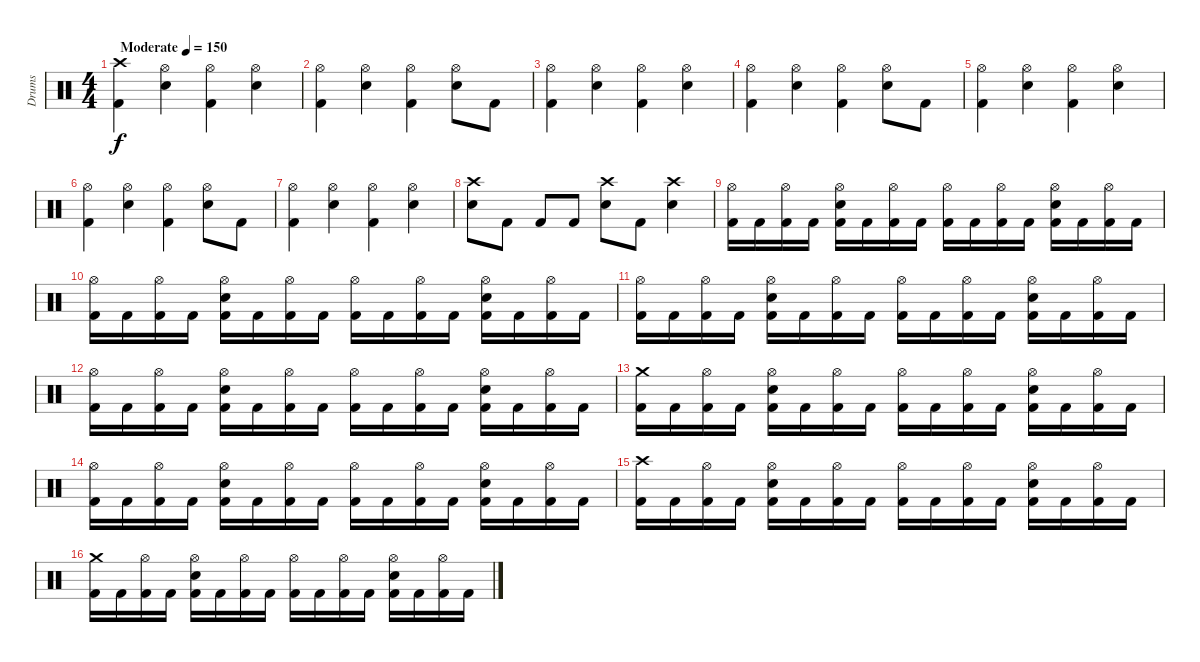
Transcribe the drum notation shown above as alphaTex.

\track ("Drums" "Drums") {instrument percussion}
\staff {score}
\articulation defaults
\ts (4 4)
\tempo (150 "Moderate")
\clef neutral
\ks c
("Crash high (hit)" "Kick (hit) 2").4{dy f} ("Hi-Hat (open)" "Snare (hit) 2").4 ("Hi-Hat (open)" "Kick (hit) 2").4 ("Hi-Hat (open)" "Snare (hit) 2").4 |
("Hi-Hat (open)" "Kick (hit) 2").4 ("Hi-Hat (open)" "Snare (hit) 2").4 ("Hi-Hat (open)" "Kick (hit) 2").4 ("Hi-Hat (open)" "Snare (hit) 2").8 "Kick (hit) 2".8 |
("Hi-Hat (open)" "Kick (hit) 2").4 ("Hi-Hat (open)" "Snare (hit) 2").4 ("Hi-Hat (open)" "Kick (hit) 2").4 ("Hi-Hat (open)" "Snare (hit) 2").4 |
("Hi-Hat (open)" "Kick (hit) 2").4 ("Hi-Hat (open)" "Snare (hit) 2").4 ("Hi-Hat (open)" "Kick (hit) 2").4 ("Hi-Hat (open)" "Snare (hit) 2").8 "Kick (hit) 2".8 |
("Hi-Hat (open)" "Kick (hit) 2").4 ("Hi-Hat (open)" "Snare (hit) 2").4 ("Hi-Hat (open)" "Kick (hit) 2").4 ("Hi-Hat (open)" "Snare (hit) 2").4 |
("Hi-Hat (open)" "Kick (hit) 2").4 ("Hi-Hat (open)" "Snare (hit) 2").4 ("Hi-Hat (open)" "Kick (hit) 2").4 ("Hi-Hat (open)" "Snare (hit) 2").8 "Kick (hit) 2".8 |
("Hi-Hat (open)" "Kick (hit) 2").4 ("Hi-Hat (open)" "Snare (hit) 2").4 ("Hi-Hat (open)" "Kick (hit) 2").4 ("Hi-Hat (open)" "Snare (hit) 2").4 |
("Crash high (hit)" "Snare (hit) 2").8 "Kick (hit) 2".8 "Kick (hit) 2".8 "Kick (hit) 2".8 ("Crash high (hit)" "Snare (hit) 2").8 "Kick (hit) 2".8 ("Crash high (hit)" "Snare (hit) 2").4 |
("Hi-Hat (open)" "Kick (hit) 2").16 "Kick (hit) 2".16 ("Hi-Hat (open)" "Kick (hit) 2").16 "Kick (hit) 2".16 ("Hi-Hat (open)" "Snare (hit) 2" "Kick (hit) 2").16 "Kick (hit) 2".16 ("Hi-Hat (open)" "Kick (hit) 2").16 "Kick (hit) 2".16 ("Hi-Hat (open)" "Kick (hit) 2").16 "Kick (hit) 2".16 ("Hi-Hat (open)" "Kick (hit) 2").16 "Kick (hit) 2".16 ("Hi-Hat (open)" "Snare (hit) 2" "Kick (hit) 2").16 "Kick (hit) 2".16 ("Hi-Hat (open)" "Kick (hit) 2").16 "Kick (hit) 2".16 |
("Hi-Hat (open)" "Kick (hit) 2").16 "Kick (hit) 2".16 ("Hi-Hat (open)" "Kick (hit) 2").16 "Kick (hit) 2".16 ("Hi-Hat (open)" "Snare (hit) 2" "Kick (hit) 2").16 "Kick (hit) 2".16 ("Hi-Hat (open)" "Kick (hit) 2").16 "Kick (hit) 2".16 ("Hi-Hat (open)" "Kick (hit) 2").16 "Kick (hit) 2".16 ("Hi-Hat (open)" "Kick (hit) 2").16 "Kick (hit) 2".16 ("Hi-Hat (open)" "Snare (hit) 2" "Kick (hit) 2").16 "Kick (hit) 2".16 ("Hi-Hat (open)" "Kick (hit) 2").16 "Kick (hit) 2".16 |
("Hi-Hat (open)" "Kick (hit) 2").16 "Kick (hit) 2".16 ("Hi-Hat (open)" "Kick (hit) 2").16 "Kick (hit) 2".16 ("Hi-Hat (open)" "Snare (hit) 2" "Kick (hit) 2").16 "Kick (hit) 2".16 ("Hi-Hat (open)" "Kick (hit) 2").16 "Kick (hit) 2".16 ("Hi-Hat (open)" "Kick (hit) 2").16 "Kick (hit) 2".16 ("Hi-Hat (open)" "Kick (hit) 2").16 "Kick (hit) 2".16 ("Hi-Hat (open)" "Snare (hit) 2" "Kick (hit) 2").16 "Kick (hit) 2".16 ("Hi-Hat (open)" "Kick (hit) 2").16 "Kick (hit) 2".16 |
("Hi-Hat (open)" "Kick (hit) 2").16 "Kick (hit) 2".16 ("Hi-Hat (open)" "Kick (hit) 2").16 "Kick (hit) 2".16 ("Hi-Hat (open)" "Snare (hit) 2" "Kick (hit) 2").16 "Kick (hit) 2".16 ("Hi-Hat (open)" "Kick (hit) 2").16 "Kick (hit) 2".16 ("Hi-Hat (open)" "Kick (hit) 2").16 "Kick (hit) 2".16 ("Hi-Hat (open)" "Kick (hit) 2").16 "Kick (hit) 2".16 ("Hi-Hat (open)" "Snare (hit) 2" "Kick (hit) 2").16 "Kick (hit) 2".16 ("Hi-Hat (open)" "Kick (hit) 2").16 "Kick (hit) 2".16 |
("Crash medium (hit)" "Kick (hit) 2").16 "Kick (hit) 2".16 ("Hi-Hat (open)" "Kick (hit) 2").16 "Kick (hit) 2".16 ("Hi-Hat (open)" "Snare (hit) 2" "Kick (hit) 2").16 "Kick (hit) 2".16 ("Hi-Hat (open)" "Kick (hit) 2").16 "Kick (hit) 2".16 ("Hi-Hat (open)" "Kick (hit) 2").16 "Kick (hit) 2".16 ("Hi-Hat (open)" "Kick (hit) 2").16 "Kick (hit) 2".16 ("Hi-Hat (open)" "Snare (hit) 2" "Kick (hit) 2").16 "Kick (hit) 2".16 ("Hi-Hat (open)" "Kick (hit) 2").16 "Kick (hit) 2".16 |
("Hi-Hat (open)" "Kick (hit) 2").16 "Kick (hit) 2".16 ("Hi-Hat (open)" "Kick (hit) 2").16 "Kick (hit) 2".16 ("Hi-Hat (open)" "Snare (hit) 2" "Kick (hit) 2").16 "Kick (hit) 2".16 ("Hi-Hat (open)" "Kick (hit) 2").16 "Kick (hit) 2".16 ("Hi-Hat (open)" "Kick (hit) 2").16 "Kick (hit) 2".16 ("Hi-Hat (open)" "Kick (hit) 2").16 "Kick (hit) 2".16 ("Hi-Hat (open)" "Snare (hit) 2" "Kick (hit) 2").16 "Kick (hit) 2".16 ("Hi-Hat (open)" "Kick (hit) 2").16 "Kick (hit) 2".16 |
("Crash high (hit)" "Kick (hit) 2").16 "Kick (hit) 2".16 ("Hi-Hat (open)" "Kick (hit) 2").16 "Kick (hit) 2".16 ("Hi-Hat (open)" "Snare (hit) 2" "Kick (hit) 2").16 "Kick (hit) 2".16 ("Hi-Hat (open)" "Kick (hit) 2").16 "Kick (hit) 2".16 ("Hi-Hat (open)" "Kick (hit) 2").16 "Kick (hit) 2".16 ("Hi-Hat (open)" "Kick (hit) 2").16 "Kick (hit) 2".16 ("Hi-Hat (open)" "Snare (hit) 2" "Kick (hit) 2").16 "Kick (hit) 2".16 ("Hi-Hat (open)" "Kick (hit) 2").16 "Kick (hit) 2".16 |
("Crash medium (hit)" "Kick (hit) 2").16 "Kick (hit) 2".16 ("Hi-Hat (open)" "Kick (hit) 2").16 "Kick (hit) 2".16 ("Hi-Hat (open)" "Snare (hit) 2" "Kick (hit) 2").16 "Kick (hit) 2".16 ("Hi-Hat (open)" "Kick (hit) 2").16 "Kick (hit) 2".16 ("Hi-Hat (open)" "Kick (hit) 2").16 "Kick (hit) 2".16 ("Hi-Hat (open)" "Kick (hit) 2").16 "Kick (hit) 2".16 ("Hi-Hat (open)" "Snare (hit) 2" "Kick (hit) 2").16 "Kick (hit) 2".16 ("Hi-Hat (open)" "Kick (hit) 2").16 "Kick (hit) 2".16
